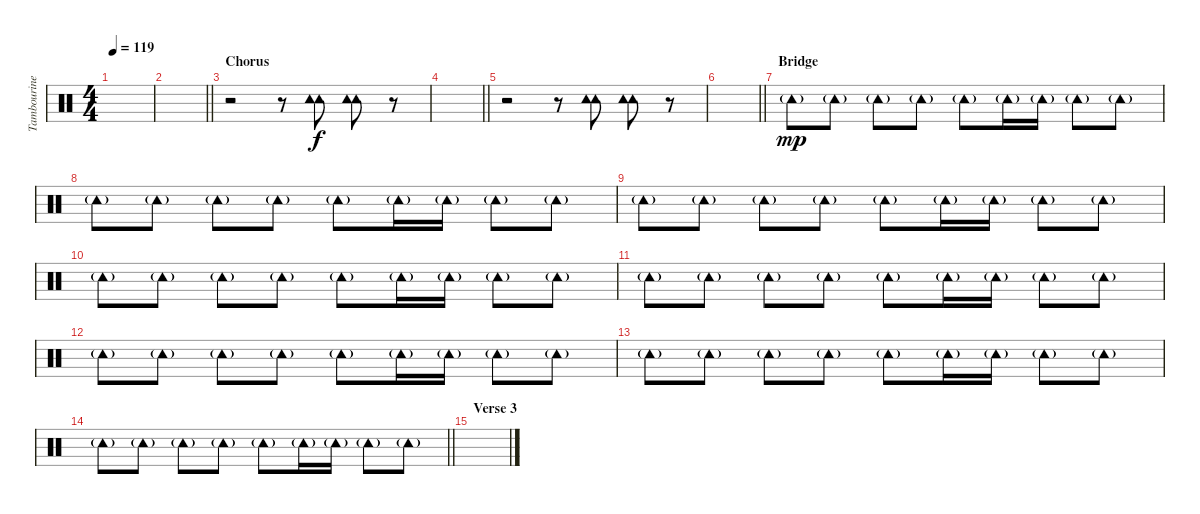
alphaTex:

\track ("Tambourine (John Lennon)" "Tambourine") {instrument percussion}
\staff {score}
\articulation defaults
\ts (4 4)
\tempo 119
\clef neutral
\ks c
|
\barLineRight lightlight
|
\section ("" "Chorus")
r.2 r.8 ("Tambourine (hit)" "Tambourine (hit)").8{bd 60} ("Tambourine (hit)" "Tambourine (hit)").8{bd 60} r.8 |
\barLineRight lightlight
|
r.2 r.8 ("Tambourine (hit)" "Tambourine (hit)").8{bd 60} ("Tambourine (hit)" "Tambourine (hit)").8{bd 60} r.8 |
\barLineRight lightlight
|
\section ("" "Bridge")
"Tambourine (hit)"{g}.8{dy mp} "Tambourine (hit)"{g}.8 "Tambourine (hit)"{g}.8 "Tambourine (hit)"{g}.8 "Tambourine (hit)"{g}.8 "Tambourine (hit)"{g}.16 "Tambourine (hit)"{g}.16 "Tambourine (hit)"{g}.8 "Tambourine (hit)"{g}.8 |
"Tambourine (hit)"{g}.8 "Tambourine (hit)"{g}.8 "Tambourine (hit)"{g}.8 "Tambourine (hit)"{g}.8 "Tambourine (hit)"{g}.8 "Tambourine (hit)"{g}.16 "Tambourine (hit)"{g}.16 "Tambourine (hit)"{g}.8 "Tambourine (hit)"{g}.8 |
"Tambourine (hit)"{g}.8 "Tambourine (hit)"{g}.8 "Tambourine (hit)"{g}.8 "Tambourine (hit)"{g}.8 "Tambourine (hit)"{g}.8 "Tambourine (hit)"{g}.16 "Tambourine (hit)"{g}.16 "Tambourine (hit)"{g}.8 "Tambourine (hit)"{g}.8 |
"Tambourine (hit)"{g}.8 "Tambourine (hit)"{g}.8 "Tambourine (hit)"{g}.8 "Tambourine (hit)"{g}.8 "Tambourine (hit)"{g}.8 "Tambourine (hit)"{g}.16 "Tambourine (hit)"{g}.16 "Tambourine (hit)"{g}.8 "Tambourine (hit)"{g}.8 |
"Tambourine (hit)"{g}.8 "Tambourine (hit)"{g}.8 "Tambourine (hit)"{g}.8 "Tambourine (hit)"{g}.8 "Tambourine (hit)"{g}.8 "Tambourine (hit)"{g}.16 "Tambourine (hit)"{g}.16 "Tambourine (hit)"{g}.8 "Tambourine (hit)"{g}.8 |
"Tambourine (hit)"{g}.8 "Tambourine (hit)"{g}.8 "Tambourine (hit)"{g}.8 "Tambourine (hit)"{g}.8 "Tambourine (hit)"{g}.8 "Tambourine (hit)"{g}.16 "Tambourine (hit)"{g}.16 "Tambourine (hit)"{g}.8 "Tambourine (hit)"{g}.8 |
"Tambourine (hit)"{g}.8 "Tambourine (hit)"{g}.8 "Tambourine (hit)"{g}.8 "Tambourine (hit)"{g}.8 "Tambourine (hit)"{g}.8 "Tambourine (hit)"{g}.16 "Tambourine (hit)"{g}.16 "Tambourine (hit)"{g}.8 "Tambourine (hit)"{g}.8 |
\barLineRight lightlight "Tambourine (hit)"{g}.8 "Tambourine (hit)"{g}.8 "Tambourine (hit)"{g}.8 "Tambourine (hit)"{g}.8 "Tambourine (hit)"{g}.8 "Tambourine (hit)"{g}.16 "Tambourine (hit)"{g}.16 "Tambourine (hit)"{g}.8 "Tambourine (hit)"{g}.8
|
\section ("" "Verse 3")
